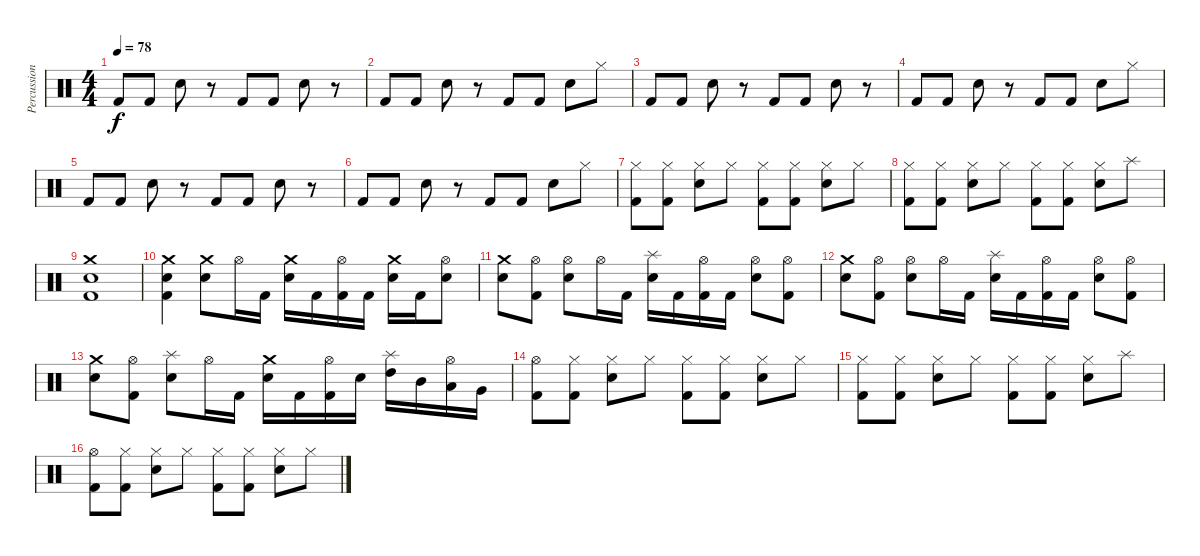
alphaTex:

\track ("Percussions" "Percussion") {instrument percussion}
\staff {score}
\articulation defaults
\ts (4 4)
\tempo 78
\clef neutral
\ks c "Kick (hit) 2".8{dy f} "Kick (hit) 2".8 "Electric Snare (hit)".8
r.8 "Kick (hit) 2".8 "Kick (hit) 2".8 "Electric Snare (hit)".8 r.8 |
"Kick (hit) 2".8 "Kick (hit) 2".8 "Electric Snare (hit)".8 r.8 "Kick (hit) 2".8 "Kick (hit) 2".8 "Electric Snare (hit)".8 "Hi-Hat (closed)".8 |
"Kick (hit) 2".8 "Kick (hit) 2".8 "Electric Snare (hit)".8 r.8 "Kick (hit) 2".8 "Kick (hit) 2".8 "Electric Snare (hit)".8 r.8 |
"Kick (hit) 2".8 "Kick (hit) 2".8 "Electric Snare (hit)".8 r.8 "Kick (hit) 2".8 "Kick (hit) 2".8 "Electric Snare (hit)".8 "Hi-Hat (closed)".8 |
"Kick (hit) 2".8 "Kick (hit) 2".8 "Electric Snare (hit)".8 r.8 "Kick (hit) 2".8 "Kick (hit) 2".8 "Electric Snare (hit)".8 r.8 |
"Kick (hit) 2".8 "Kick (hit) 2".8 "Electric Snare (hit)".8 r.8 "Kick (hit) 2".8 "Kick (hit) 2".8 "Electric Snare (hit)".8 "Hi-Hat (closed)".8 |
("Hi-Hat (closed)" "Kick (hit) 2").8 ("Hi-Hat (closed)" "Kick (hit) 2").8 ("Hi-Hat (closed)" "Electric Snare (hit)").8 "Hi-Hat (closed)".8 ("Hi-Hat (closed)" "Kick (hit) 2").8 ("Hi-Hat (closed)" "Kick (hit) 2").8 ("Hi-Hat (closed)" "Electric Snare (hit)").8 "Hi-Hat (closed)".8 |
("Hi-Hat (closed)" "Kick (hit) 2").8 ("Hi-Hat (closed)" "Kick (hit) 2").8 ("Hi-Hat (closed)" "Electric Snare (hit)").8 "Hi-Hat (closed)".8 ("Hi-Hat (closed)" "Kick (hit) 2").8 ("Hi-Hat (closed)" "Kick (hit) 2").8 ("Hi-Hat (closed)" "Electric Snare (hit)").8 "Splash (hit)".8 |
("Crash medium (hit)" "Electric Snare (hit)" "Kick (hit) 2").1 |
("Crash medium (hit)" "Electric Snare (hit)" "Kick (hit) 2").4 ("Crash medium (hit)" "Electric Snare (hit)").8 "Hi-Hat (open)".16 "Kick (hit) 2".16 ("Crash medium (hit)" "Electric Snare (hit)").16 "Kick (hit) 2".16 ("Hi-Hat (open)" "Kick (hit) 2").16 "Kick (hit) 2".16 ("Crash medium (hit)" "Electric Snare (hit)").16 "Kick (hit) 2".16 ("Hi-Hat (open)" "Electric Snare (hit)").8 |
("Crash medium (hit)" "Electric Snare (hit)").8 ("Hi-Hat (open)" "Kick (hit) 2").8 ("Hi-Hat (open)" "Electric Snare (hit)").8 "Hi-Hat (open)".16 "Kick (hit) 2".16 ("Splash (hit)" "Electric Snare (hit)").16 "Kick (hit) 2".16 ("Hi-Hat (open)" "Kick (hit) 2").16 "Kick (hit) 2".16 ("Hi-Hat (open)" "Electric Snare (hit)").8 ("Hi-Hat (open)" "Kick (hit) 2").8 |
("Crash medium (hit)" "Electric Snare (hit)").8 ("Hi-Hat (open)" "Kick (hit) 2").8 ("Hi-Hat (open)" "Electric Snare (hit)").8 "Hi-Hat (open)".16 "Kick (hit) 2".16 ("Splash (hit)" "Electric Snare (hit)").16 "Kick (hit) 2".16 ("Hi-Hat (open)" "Kick (hit) 2").16 "Kick (hit) 2".16 ("Hi-Hat (open)" "Electric Snare (hit)").8 ("Hi-Hat (open)" "Kick (hit) 2").8 |
("Crash medium (hit)" "Electric Snare (hit)").8 ("Hi-Hat (open)" "Kick (hit) 2").8 ("Splash (hit)" "Electric Snare (hit)").8 "Hi-Hat (open)".16 "Kick (hit) 2".16 ("Crash medium (hit)" "Electric Snare (hit)").16 "Kick (hit) 2".16 ("Hi-Hat (open)" "Kick (hit) 2").16 "Electric Snare (hit)".16 ("Splash (hit)" "High Tom (hit)").16 "Mid Tom (hit)".16 ("Hi-Hat (open)" "Low Tom (hit)").16 "Very Low Tom (hit)".16 |
("Hi-Hat (open)" "Kick (hit) 2").8 ("Hi-Hat (closed)" "Kick (hit) 2").8 ("Hi-Hat (closed)" "Electric Snare (hit)").8 "Hi-Hat (closed)".8 ("Hi-Hat (closed)" "Kick (hit) 2").8 ("Hi-Hat (closed)" "Kick (hit) 2").8 ("Hi-Hat (closed)" "Electric Snare (hit)").8 "Hi-Hat (closed)".8 |
("Hi-Hat (closed)" "Kick (hit) 2").8 ("Hi-Hat (closed)" "Kick (hit) 2").8 ("Hi-Hat (closed)" "Electric Snare (hit)").8 "Hi-Hat (closed)".8 ("Hi-Hat (closed)" "Kick (hit) 2").8 ("Hi-Hat (closed)" "Kick (hit) 2").8 ("Hi-Hat (closed)" "Electric Snare (hit)").8 "Splash (hit)".8 |
("Hi-Hat (open)" "Kick (hit) 2").8 ("Hi-Hat (closed)" "Kick (hit) 2").8 ("Hi-Hat (closed)" "Electric Snare (hit)").8 "Hi-Hat (closed)".8 ("Hi-Hat (closed)" "Kick (hit) 2").8 ("Hi-Hat (closed)" "Kick (hit) 2").8 ("Hi-Hat (closed)" "Electric Snare (hit)").8 "Hi-Hat (closed)".8
